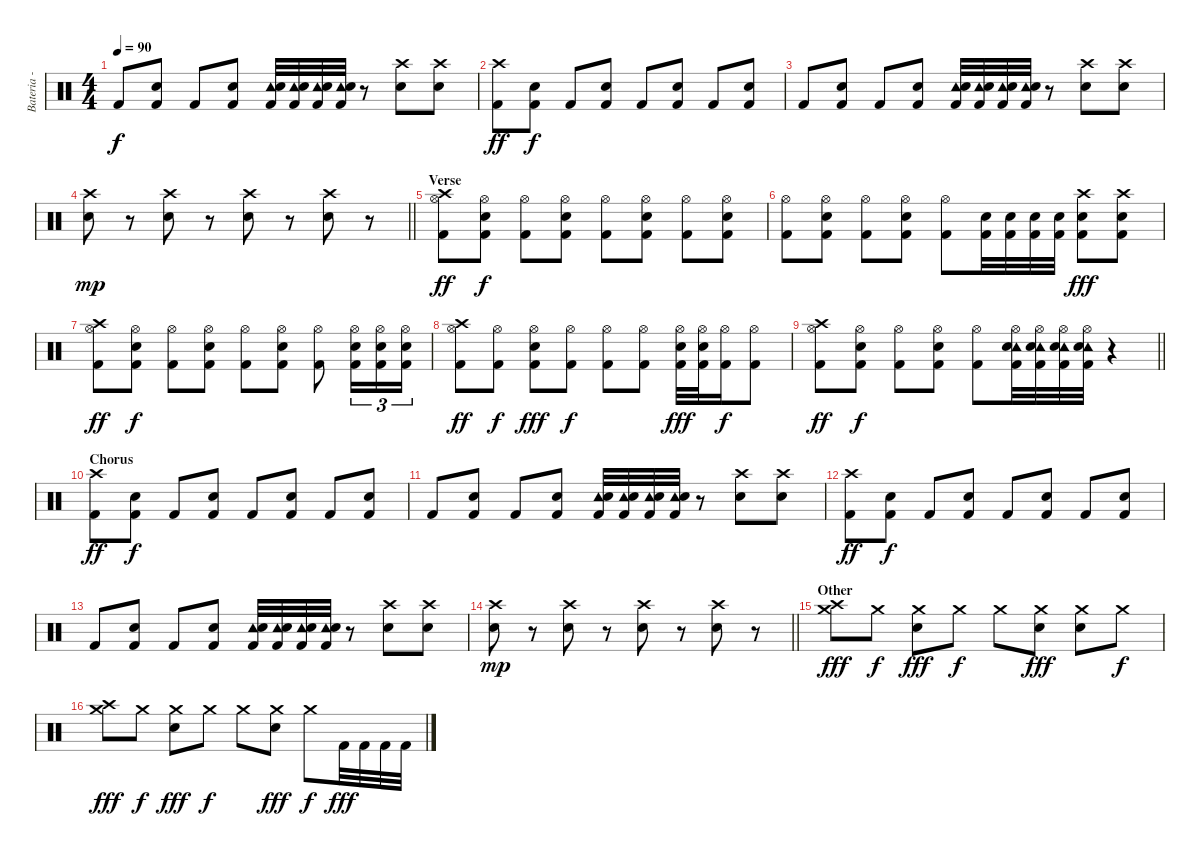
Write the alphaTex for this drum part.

\track ("Bateria - Larzon" "Bateria - ") {instrument percussion}
\staff {score}
\articulation defaults
\ts (4 4)
\tempo 90
\clef neutral
\ks c "Kick (hit) 2".8{dy f}
("Kick (hit) 2" "Snare (hit) 2").8 "Kick (hit) 2".8 ("Kick (hit) 2" "Snare (hit) 2").8 ("Kick (hit) 2" "Tambourine (hit)" "Snare (hit) 2").32 ("Kick (hit) 2" "Tambourine (hit)" "Snare (hit) 2").32 ("Kick (hit) 2" "Tambourine (hit)" "Snare (hit) 2").32 ("Kick (hit) 2" "Tambourine (hit)" "Snare (hit) 2").32 r.8 ("Snare (hit) 2" "Crash high (hit)").8 ("Snare (hit) 2" "Crash high (hit)").8 |
("Kick (hit) 2" "Crash high (hit)").8{dy ff} ("Kick (hit) 2" "Snare (hit) 2").8{dy f} "Kick (hit) 2".8 ("Kick (hit) 2" "Snare (hit) 2").8 "Kick (hit) 2".8 ("Kick (hit) 2" "Snare (hit) 2").8 "Kick (hit) 2".8 ("Kick (hit) 2" "Snare (hit) 2").8 |
"Kick (hit) 2".8 ("Kick (hit) 2" "Snare (hit) 2").8 "Kick (hit) 2".8 ("Kick (hit) 2" "Snare (hit) 2").8 ("Kick (hit) 2" "Tambourine (hit)" "Snare (hit) 2").32 ("Kick (hit) 2" "Tambourine (hit)" "Snare (hit) 2").32 ("Kick (hit) 2" "Tambourine (hit)" "Snare (hit) 2").32 ("Kick (hit) 2" "Tambourine (hit)" "Snare (hit) 2").32 r.8 ("Snare (hit) 2" "Crash high (hit)").8 ("Snare (hit) 2" "Crash high (hit)").8 |
\barLineRight lightlight
("Snare (hit) 2" "Crash high (hit)").8{dy mp} r.8 ("Snare (hit) 2" "Crash high (hit)").8 r.8 ("Snare (hit) 2" "Crash high (hit)").8 r.8 ("Snare (hit) 2" "Crash high (hit)").8 r.8 |
\section ("" "Verse")
("Kick (hit) 2" "Hi-Hat (open)" "Crash high (hit)").8{dy ff} ("Kick (hit) 2" "Hi-Hat (open)" "Snare (hit) 2").8{dy f} ("Kick (hit) 2" "Hi-Hat (open)").8 ("Kick (hit) 2" "Hi-Hat (open)" "Snare (hit) 2").8 ("Kick (hit) 2" "Hi-Hat (open)").8 ("Kick (hit) 2" "Hi-Hat (open)" "Snare (hit) 2").8 ("Kick (hit) 2" "Hi-Hat (open)").8 ("Kick (hit) 2" "Hi-Hat (open)" "Snare (hit) 2").8 |
("Kick (hit) 2" "Hi-Hat (open)").8 ("Kick (hit) 2" "Hi-Hat (open)" "Snare (hit) 2").8 ("Kick (hit) 2" "Hi-Hat (open)").8 ("Kick (hit) 2" "Hi-Hat (open)" "Snare (hit) 2").8 ("Kick (hit) 2" "Hi-Hat (open)").8 ("Kick (hit) 2" "Snare (hit) 2").32 ("Kick (hit) 2" "Snare (hit) 2").32 ("Kick (hit) 2" "Snare (hit) 2").32 ("Kick (hit) 2" "Snare (hit) 2").32 ("Kick (hit) 2" "Snare (hit) 2" "Crash high (hit)").8{dy fff} ("Kick (hit) 2" "Snare (hit) 2" "Crash high (hit)").8 |
("Kick (hit) 2" "Hi-Hat (open)" "Crash high (hit)").8{dy ff} ("Kick (hit) 2" "Hi-Hat (open)" "Snare (hit) 2").8{dy f} ("Kick (hit) 2" "Hi-Hat (open)").8 ("Kick (hit) 2" "Hi-Hat (open)" "Snare (hit) 2").8 ("Kick (hit) 2" "Hi-Hat (open)").8 ("Kick (hit) 2" "Hi-Hat (open)" "Snare (hit) 2").8 ("Kick (hit) 2" "Hi-Hat (open)").8 ("Kick (hit) 2" "Hi-Hat (open)" "Snare (hit) 2").16{tu (3 2)} ("Kick (hit) 2" "Hi-Hat (open)" "Snare (hit) 2").16{tu (3 2)} ("Kick (hit) 2" "Hi-Hat (open)" "Snare (hit) 2").16{tu (3 2)} |
("Kick (hit) 2" "Hi-Hat (open)" "Crash high (hit)").8{dy ff} ("Kick (hit) 2" "Hi-Hat (open)").8{dy f} ("Kick (hit) 2" "Hi-Hat (open)" "Snare (hit) 2").8{dy fff} ("Kick (hit) 2" "Hi-Hat (open)").8{dy f} ("Kick (hit) 2" "Hi-Hat (open)").8 ("Kick (hit) 2" "Hi-Hat (open)").8 ("Kick (hit) 2" "Hi-Hat (open)" "Snare (hit) 2").32{dy fff} ("Kick (hit) 2" "Hi-Hat (open)" "Snare (hit) 2").32 ("Kick (hit) 2" "Hi-Hat (open)").16{dy f} ("Kick (hit) 2" "Hi-Hat (open)").8 |
\barLineRight lightlight
("Kick (hit) 2" "Hi-Hat (open)" "Crash high (hit)").8{dy ff} ("Kick (hit) 2" "Hi-Hat (open)" "Snare (hit) 2").8{dy f} ("Kick (hit) 2" "Hi-Hat (open)").8 ("Kick (hit) 2" "Hi-Hat (open)" "Snare (hit) 2").8 ("Kick (hit) 2" "Hi-Hat (open)").8 ("Kick (hit) 2" "Hi-Hat (open)" "Tambourine (hit)" "Snare (hit) 2").32 ("Kick (hit) 2" "Hi-Hat (open)" "Tambourine (hit)" "Snare (hit) 2").32 ("Kick (hit) 2" "Hi-Hat (open)" "Tambourine (hit)" "Snare (hit) 2").32 ("Kick (hit) 2" "Hi-Hat (open)" "Tambourine (hit)" "Snare (hit) 2").32 r.4 |
\section ("" "Chorus")
("Kick (hit) 2" "Crash high (hit)").8{dy ff} ("Kick (hit) 2" "Snare (hit) 2").8{dy f} "Kick (hit) 2".8 ("Kick (hit) 2" "Snare (hit) 2").8 "Kick (hit) 2".8 ("Kick (hit) 2" "Snare (hit) 2").8 "Kick (hit) 2".8 ("Kick (hit) 2" "Snare (hit) 2").8 |
"Kick (hit) 2".8 ("Kick (hit) 2" "Snare (hit) 2").8 "Kick (hit) 2".8 ("Kick (hit) 2" "Snare (hit) 2").8 ("Kick (hit) 2" "Tambourine (hit)" "Snare (hit) 2").32 ("Kick (hit) 2" "Tambourine (hit)" "Snare (hit) 2").32 ("Kick (hit) 2" "Tambourine (hit)" "Snare (hit) 2").32 ("Kick (hit) 2" "Tambourine (hit)" "Snare (hit) 2").32 r.8 ("Snare (hit) 2" "Crash high (hit)").8 ("Snare (hit) 2" "Crash high (hit)").8 |
("Kick (hit) 2" "Crash high (hit)").8{dy ff} ("Kick (hit) 2" "Snare (hit) 2").8{dy f} "Kick (hit) 2".8 ("Kick (hit) 2" "Snare (hit) 2").8 "Kick (hit) 2".8 ("Kick (hit) 2" "Snare (hit) 2").8 "Kick (hit) 2".8 ("Kick (hit) 2" "Snare (hit) 2").8 |
"Kick (hit) 2".8 ("Kick (hit) 2" "Snare (hit) 2").8 "Kick (hit) 2".8 ("Kick (hit) 2" "Snare (hit) 2").8 ("Kick (hit) 2" "Tambourine (hit)" "Snare (hit) 2").32 ("Kick (hit) 2" "Tambourine (hit)" "Snare (hit) 2").32 ("Kick (hit) 2" "Tambourine (hit)" "Snare (hit) 2").32 ("Kick (hit) 2" "Tambourine (hit)" "Snare (hit) 2").32 r.8 ("Snare (hit) 2" "Crash high (hit)").8 ("Snare (hit) 2" "Crash high (hit)").8 |
\barLineRight lightlight
("Snare (hit) 2" "Crash high (hit)").8{dy mp} r.8 ("Snare (hit) 2" "Crash high (hit)").8 r.8 ("Snare (hit) 2" "Crash high (hit)").8 r.8 ("Snare (hit) 2" "Crash high (hit)").8 r.8 |
\section ("" "Other")
("Crash medium (hit)" "Crash high (hit)").8{dy fff} "Crash medium (hit)".8{dy f} ("Crash medium (hit)" "Snare (hit) 2").8{dy fff} "Crash medium (hit)".8{dy f} "Crash medium (hit)".8 ("Crash medium (hit)" "Snare (hit) 2").8{dy fff} ("Crash medium (hit)" "Snare (hit) 2").8 "Crash medium (hit)".8{dy f} |
("Crash medium (hit)" "Crash high (hit)").8{dy fff} "Crash medium (hit)".8{dy f} ("Crash medium (hit)" "Snare (hit) 2").8{dy fff} "Crash medium (hit)".8{dy f} "Crash medium (hit)".8 ("Crash medium (hit)" "Snare (hit) 2").8{dy fff} "Crash medium (hit)".8{dy f} "Kick (hit) 2".32{dy fff} "Kick (hit) 2".32 "Kick (hit) 2".32 "Kick (hit) 2".32
